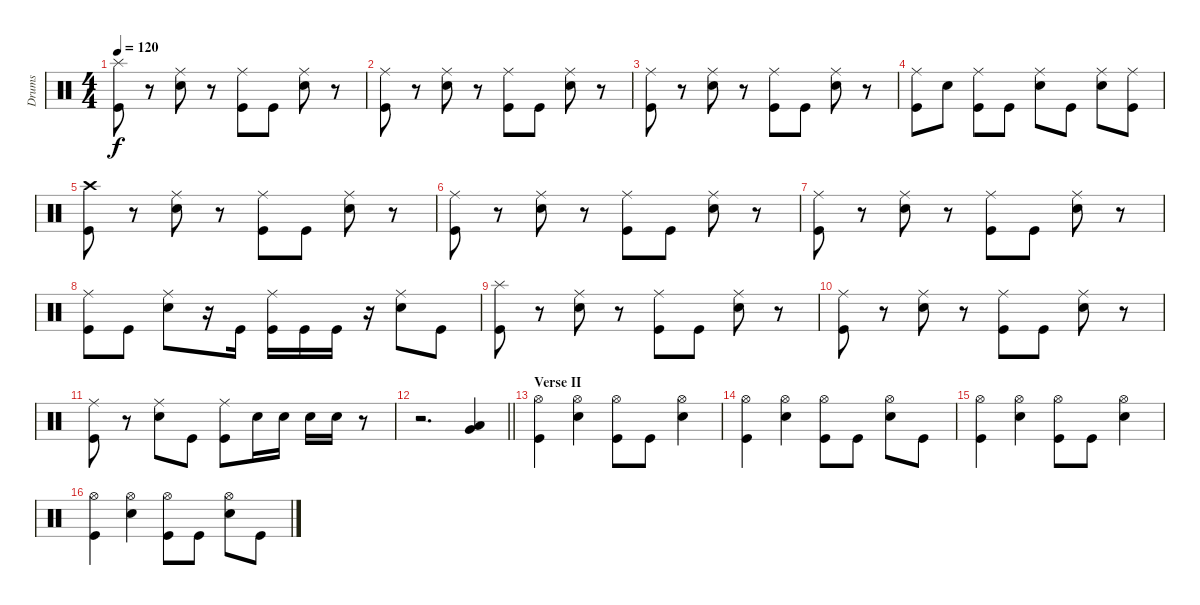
\track ("Drums" "Drums") {instrument percussion}
\staff {score}
\articulation defaults
\ts (4 4)
\tempo 120
\clef neutral
\ks c
("Kick (hit)" "Splash (hit)").8{dy f} r.8 ("Snare (hit) 2" "Ride (middle)").8 r.8 ("Kick (hit)" "Ride (middle)").8 "Kick (hit)".8 ("Snare (hit) 2" "Ride (middle)").8 r.8 |
("Kick (hit)" "Ride (middle)").8 r.8 ("Snare (hit) 2" "Ride (middle)").8 r.8 ("Kick (hit)" "Ride (middle)").8 "Kick (hit)".8 ("Snare (hit) 2" "Ride (middle)").8 r.8 |
("Kick (hit)" "Ride (middle)").8 r.8 ("Snare (hit) 2" "Ride (middle)").8 r.8 ("Kick (hit)" "Ride (middle)").8 "Kick (hit)".8 ("Snare (hit) 2" "Ride (middle)").8 r.8 |
("Kick (hit)" "Ride (middle)").8 "Snare (hit) 2".8 ("Kick (hit)" "Ride (middle)").8 "Kick (hit)".8 ("Snare (hit) 2" "Ride (middle)").8 "Kick (hit)".8 ("Snare (hit) 2" "Ride (middle)").8 ("Kick (hit)" "Ride (middle)").8 |
("Kick (hit)" "Crash high (hit)").8 r.8 ("Snare (hit) 2" "Ride (middle)").8 r.8 ("Kick (hit)" "Ride (middle)").8 "Kick (hit)".8 ("Snare (hit) 2" "Ride (middle)").8 r.8 |
("Kick (hit)" "Ride (middle)").8 r.8 ("Snare (hit) 2" "Ride (middle)").8 r.8 ("Kick (hit)" "Ride (middle)").8 "Kick (hit)".8 ("Snare (hit) 2" "Ride (middle)").8 r.8 |
("Kick (hit)" "Ride (middle)").8 r.8 ("Snare (hit) 2" "Ride (middle)").8 r.8 ("Kick (hit)" "Ride (middle)").8 "Kick (hit)".8 ("Snare (hit) 2" "Ride (middle)").8 r.8 |
("Kick (hit)" "Ride (middle)").8 "Kick (hit)".8 ("Snare (hit) 2" "Ride (middle)").8 r.16 "Kick (hit)".16 ("Kick (hit)" "Ride (middle)").16 "Kick (hit)".16 "Kick (hit)".16 r.16 ("Snare (hit) 2" "Ride (middle)").8 "Kick (hit)".8 |
("Kick (hit)" "Splash (hit)").8 r.8 ("Snare (hit) 2" "Ride (middle)").8 r.8 ("Kick (hit)" "Ride (middle)").8 "Kick (hit)".8 ("Snare (hit) 2" "Ride (middle)").8 r.8 |
("Kick (hit)" "Ride (middle)").8 r.8 ("Snare (hit) 2" "Ride (middle)").8 r.8 ("Kick (hit)" "Ride (middle)").8 "Kick (hit)".8 ("Snare (hit) 2" "Ride (middle)").8 r.8 |
("Kick (hit)" "Ride (middle)").8 r.8 ("Snare (hit) 2" "Ride (middle)").8 "Kick (hit)".8 ("Kick (hit)" "Ride (middle)").8 "Snare (hit) 2".16 "Snare (hit) 2".16 "Snare (hit) 2".16 "Snare (hit) 2".16 r.8 |
\barLineRight lightlight
r.2{d} ("Low Floor Tom (hit)" "Very Low Tom (hit)").4 |
\section ("" "Verse II")
("Kick (hit)" "Hi-Hat (open)").4 ("Snare (hit) 2" "Hi-Hat (open)").4 ("Kick (hit)" "Hi-Hat (open)").8 "Kick (hit)".8 ("Snare (hit) 2" "Hi-Hat (open)").4 |
("Kick (hit)" "Hi-Hat (open)").4 ("Snare (hit) 2" "Hi-Hat (open)").4 ("Kick (hit)" "Hi-Hat (open)").8 "Kick (hit)".8 ("Snare (hit) 2" "Hi-Hat (open)").8 "Kick (hit)".8 |
("Kick (hit)" "Hi-Hat (open)").4 ("Snare (hit) 2" "Hi-Hat (open)").4 ("Kick (hit)" "Hi-Hat (open)").8 "Kick (hit)".8 ("Snare (hit) 2" "Hi-Hat (open)").4 |
("Kick (hit)" "Hi-Hat (open)").4 ("Snare (hit) 2" "Hi-Hat (open)").4 ("Kick (hit)" "Hi-Hat (open)").8 "Kick (hit)".8 ("Snare (hit) 2" "Hi-Hat (open)").8 "Kick (hit)".8
